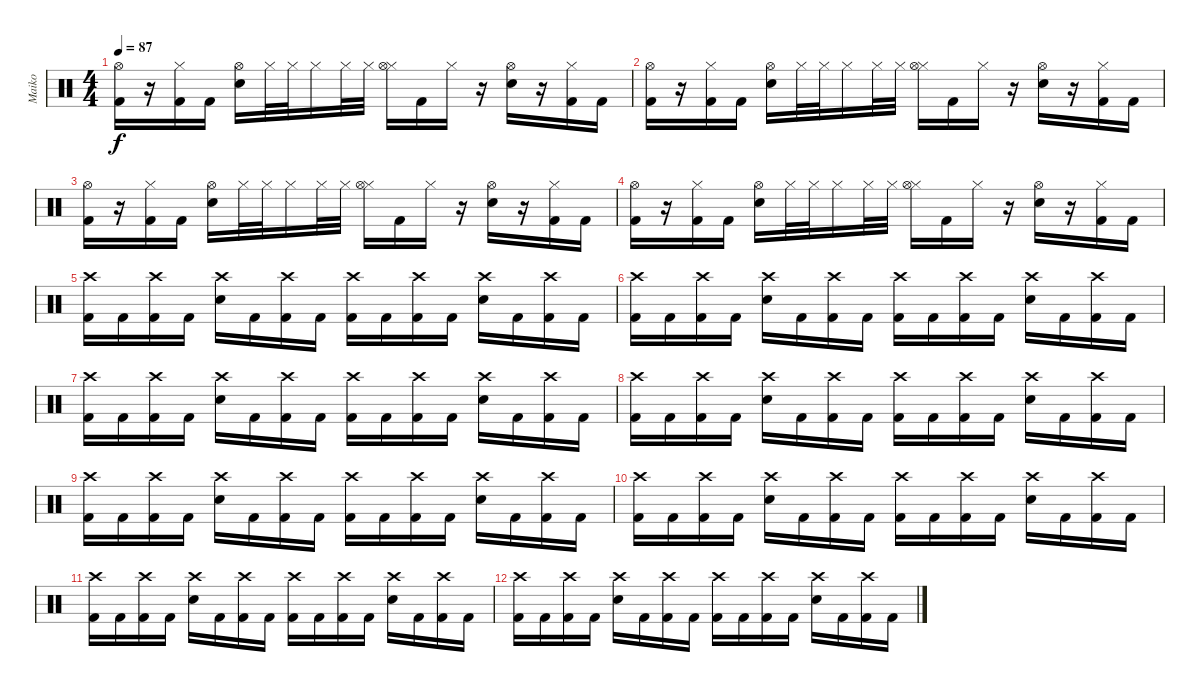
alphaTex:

\track ("Maiko" "Maiko") {instrument percussion}
\staff {score}
\articulation defaults
\ts (4 4)
\tempo 87
\clef neutral
\ks c
("Hi-Hat (open)" "Kick (hit) 2").16{dy f} r.16 ("Hi-Hat (closed)" "Kick (hit) 2").16 "Kick (hit) 2".16 ("Hi-Hat (open)" "Electric Snare (hit)").16 "Hi-Hat (closed)".32 "Hi-Hat (closed)".32 "Hi-Hat (closed)".16 "Hi-Hat (closed)".32 "Hi-Hat (closed)".32 ("Hi-Hat (closed)" "Hi-Hat (open)").16 "Kick (hit) 2".16 "Hi-Hat (closed)".16 r.16 ("Hi-Hat (open)" "Electric Snare (hit)").16 r.16 ("Hi-Hat (closed)" "Kick (hit) 2").16 "Kick (hit) 2".16 |
("Hi-Hat (open)" "Kick (hit) 2").16 r.16 ("Hi-Hat (closed)" "Kick (hit) 2").16 "Kick (hit) 2".16 ("Hi-Hat (open)" "Electric Snare (hit)").16 "Hi-Hat (closed)".32 "Hi-Hat (closed)".32 "Hi-Hat (closed)".16 "Hi-Hat (closed)".32 "Hi-Hat (closed)".32 ("Hi-Hat (closed)" "Hi-Hat (open)").16 "Kick (hit) 2".16 "Hi-Hat (closed)".16 r.16 ("Hi-Hat (open)" "Electric Snare (hit)").16 r.16 ("Hi-Hat (closed)" "Kick (hit) 2").16 "Kick (hit) 2".16 |
("Hi-Hat (open)" "Kick (hit) 2").16 r.16 ("Hi-Hat (closed)" "Kick (hit) 2").16 "Kick (hit) 2".16 ("Hi-Hat (open)" "Electric Snare (hit)").16 "Hi-Hat (closed)".32 "Hi-Hat (closed)".32 "Hi-Hat (closed)".16 "Hi-Hat (closed)".32 "Hi-Hat (closed)".32 ("Hi-Hat (closed)" "Hi-Hat (open)").16 "Kick (hit) 2".16 "Hi-Hat (closed)".16 r.16 ("Hi-Hat (open)" "Electric Snare (hit)").16 r.16 ("Hi-Hat (closed)" "Kick (hit) 2").16 "Kick (hit) 2".16 |
("Hi-Hat (open)" "Kick (hit) 2").16 r.16 ("Hi-Hat (closed)" "Kick (hit) 2").16 "Kick (hit) 2".16 ("Hi-Hat (open)" "Electric Snare (hit)").16 "Hi-Hat (closed)".32 "Hi-Hat (closed)".32 "Hi-Hat (closed)".16 "Hi-Hat (closed)".32 "Hi-Hat (closed)".32 ("Hi-Hat (closed)" "Hi-Hat (open)").16 "Kick (hit) 2".16 "Hi-Hat (closed)".16 r.16 ("Hi-Hat (open)" "Electric Snare (hit)").16 r.16 ("Hi-Hat (closed)" "Kick (hit) 2").16 "Kick (hit) 2".16 |
("Crash high (hit)" "Kick (hit) 2").16 "Kick (hit) 2".16 ("Crash high (hit)" "Kick (hit) 2").16 "Kick (hit) 2".16 ("Crash high (hit)" "Electric Snare (hit)").16 "Kick (hit) 2".16 ("Crash high (hit)" "Kick (hit) 2").16 "Kick (hit) 2".16 ("Crash high (hit)" "Kick (hit) 2").16 "Kick (hit) 2".16 ("Crash high (hit)" "Kick (hit) 2").16 "Kick (hit) 2".16 ("Crash high (hit)" "Electric Snare (hit)").16 "Kick (hit) 2".16 ("Crash high (hit)" "Kick (hit) 2").16 "Kick (hit) 2".16 |
("Crash high (hit)" "Kick (hit) 2").16 "Kick (hit) 2".16 ("Crash high (hit)" "Kick (hit) 2").16 "Kick (hit) 2".16 ("Crash high (hit)" "Electric Snare (hit)").16 "Kick (hit) 2".16 ("Crash high (hit)" "Kick (hit) 2").16 "Kick (hit) 2".16 ("Crash high (hit)" "Kick (hit) 2").16 "Kick (hit) 2".16 ("Crash high (hit)" "Kick (hit) 2").16 "Kick (hit) 2".16 ("Crash high (hit)" "Electric Snare (hit)").16 "Kick (hit) 2".16 ("Crash high (hit)" "Kick (hit) 2").16 "Kick (hit) 2".16 |
("Crash high (hit)" "Kick (hit) 2").16 "Kick (hit) 2".16 ("Crash high (hit)" "Kick (hit) 2").16 "Kick (hit) 2".16 ("Crash high (hit)" "Electric Snare (hit)").16 "Kick (hit) 2".16 ("Crash high (hit)" "Kick (hit) 2").16 "Kick (hit) 2".16 ("Crash high (hit)" "Kick (hit) 2").16 "Kick (hit) 2".16 ("Crash high (hit)" "Kick (hit) 2").16 "Kick (hit) 2".16 ("Crash high (hit)" "Electric Snare (hit)").16 "Kick (hit) 2".16 ("Crash high (hit)" "Kick (hit) 2").16 "Kick (hit) 2".16 |
("Crash high (hit)" "Kick (hit) 2").16 "Kick (hit) 2".16 ("Crash high (hit)" "Kick (hit) 2").16 "Kick (hit) 2".16 ("Crash high (hit)" "Electric Snare (hit)").16 "Kick (hit) 2".16 ("Crash high (hit)" "Kick (hit) 2").16 "Kick (hit) 2".16 ("Crash high (hit)" "Kick (hit) 2").16 "Kick (hit) 2".16 ("Crash high (hit)" "Kick (hit) 2").16 "Kick (hit) 2".16 ("Crash high (hit)" "Electric Snare (hit)").16 "Kick (hit) 2".16 ("Crash high (hit)" "Kick (hit) 2").16 "Kick (hit) 2".16 |
("Crash high (hit)" "Kick (hit) 2").16 "Kick (hit) 2".16 ("Crash high (hit)" "Kick (hit) 2").16 "Kick (hit) 2".16 ("Crash high (hit)" "Electric Snare (hit)").16 "Kick (hit) 2".16 ("Crash high (hit)" "Kick (hit) 2").16 "Kick (hit) 2".16 ("Crash high (hit)" "Kick (hit) 2").16 "Kick (hit) 2".16 ("Crash high (hit)" "Kick (hit) 2").16 "Kick (hit) 2".16 ("Crash high (hit)" "Electric Snare (hit)").16 "Kick (hit) 2".16 ("Crash high (hit)" "Kick (hit) 2").16 "Kick (hit) 2".16 |
("Crash high (hit)" "Kick (hit) 2").16 "Kick (hit) 2".16 ("Crash high (hit)" "Kick (hit) 2").16 "Kick (hit) 2".16 ("Crash high (hit)" "Electric Snare (hit)").16 "Kick (hit) 2".16 ("Crash high (hit)" "Kick (hit) 2").16 "Kick (hit) 2".16 ("Crash high (hit)" "Kick (hit) 2").16 "Kick (hit) 2".16 ("Crash high (hit)" "Kick (hit) 2").16 "Kick (hit) 2".16 ("Crash high (hit)" "Electric Snare (hit)").16 "Kick (hit) 2".16 ("Crash high (hit)" "Kick (hit) 2").16 "Kick (hit) 2".16 |
("Crash high (hit)" "Kick (hit) 2").16 "Kick (hit) 2".16 ("Crash high (hit)" "Kick (hit) 2").16 "Kick (hit) 2".16 ("Crash high (hit)" "Electric Snare (hit)").16 "Kick (hit) 2".16 ("Crash high (hit)" "Kick (hit) 2").16 "Kick (hit) 2".16 ("Crash high (hit)" "Kick (hit) 2").16 "Kick (hit) 2".16 ("Crash high (hit)" "Kick (hit) 2").16 "Kick (hit) 2".16 ("Crash high (hit)" "Electric Snare (hit)").16 "Kick (hit) 2".16 ("Crash high (hit)" "Kick (hit) 2").16 "Kick (hit) 2".16 |
("Crash high (hit)" "Kick (hit) 2").16 "Kick (hit) 2".16 ("Crash high (hit)" "Kick (hit) 2").16 "Kick (hit) 2".16 ("Crash high (hit)" "Electric Snare (hit)").16 "Kick (hit) 2".16 ("Crash high (hit)" "Kick (hit) 2").16 "Kick (hit) 2".16 ("Crash high (hit)" "Kick (hit) 2").16 "Kick (hit) 2".16 ("Crash high (hit)" "Kick (hit) 2").16 "Kick (hit) 2".16 ("Crash high (hit)" "Electric Snare (hit)").16 "Kick (hit) 2".16 ("Crash high (hit)" "Kick (hit) 2").16 "Kick (hit) 2".16
